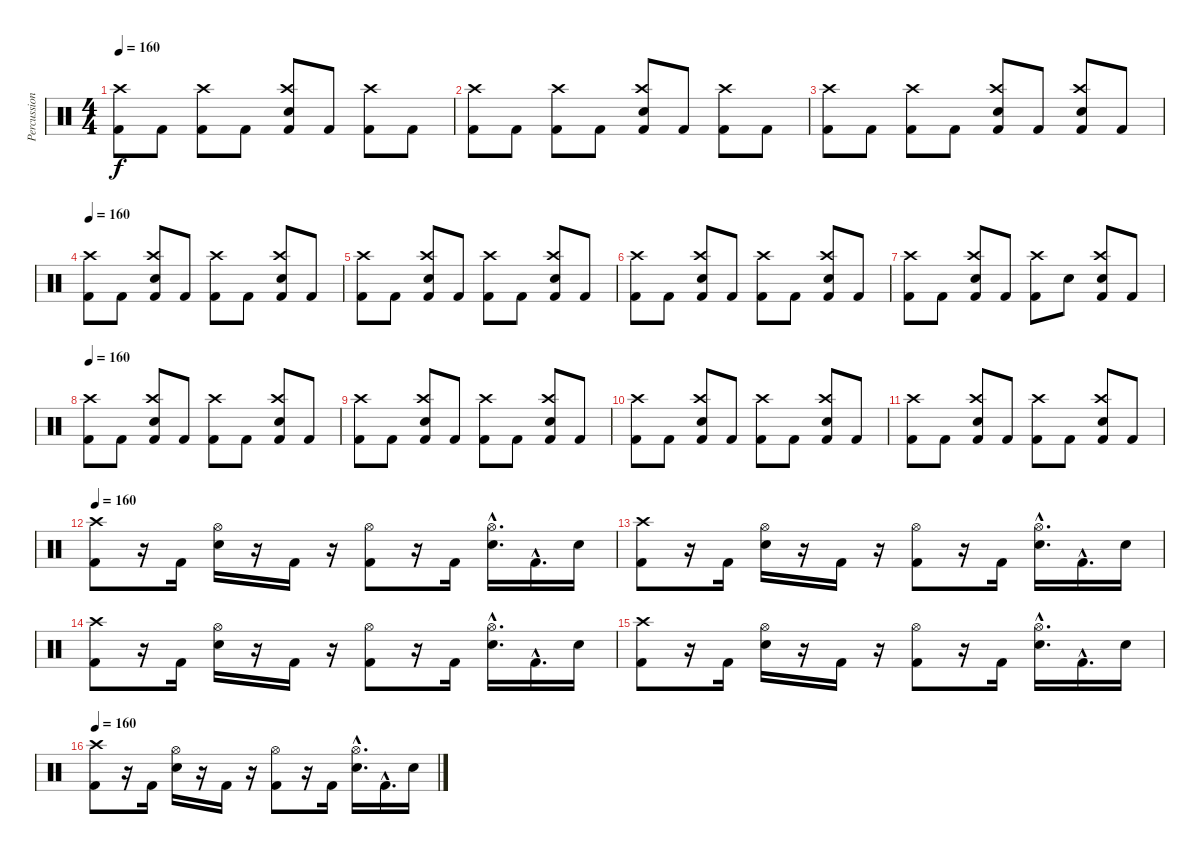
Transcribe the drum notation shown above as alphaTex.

\track ("Percussions" "Percussion") {instrument percussion}
\staff {score}
\articulation defaults
\ts (4 4)
\tempo 160
\clef neutral
\ks c
("Kick (hit) 2" "Crash high (hit)").8{dy f} "Kick (hit) 2".8 ("Kick (hit) 2" "Crash high (hit)").8 "Kick (hit) 2".8 ("Kick (hit) 2" "Electric Snare (hit)" "Crash high (hit)").8 "Kick (hit) 2".8 ("Kick (hit) 2" "Crash high (hit)").8 "Kick (hit) 2".8 |
("Kick (hit) 2" "Crash high (hit)").8 "Kick (hit) 2".8 ("Kick (hit) 2" "Crash high (hit)").8 "Kick (hit) 2".8 ("Kick (hit) 2" "Electric Snare (hit)" "Crash high (hit)").8 "Kick (hit) 2".8 ("Kick (hit) 2" "Crash high (hit)").8 "Kick (hit) 2".8 |
("Kick (hit) 2" "Crash high (hit)").8 "Kick (hit) 2".8 ("Kick (hit) 2" "Crash high (hit)").8 "Kick (hit) 2".8 ("Kick (hit) 2" "Electric Snare (hit)" "Crash high (hit)").8 "Kick (hit) 2".8 ("Kick (hit) 2" "Electric Snare (hit)" "Crash high (hit)").8 "Kick (hit) 2".8 |
\tempo 160
("Kick (hit) 2" "Crash high (hit)").8 "Kick (hit) 2".8 ("Kick (hit) 2" "Electric Snare (hit)" "Crash high (hit)").8 "Kick (hit) 2".8 ("Kick (hit) 2" "Crash high (hit)").8 "Kick (hit) 2".8 ("Kick (hit) 2" "Electric Snare (hit)" "Crash high (hit)").8 "Kick (hit) 2".8 |
("Kick (hit) 2" "Crash high (hit)").8 "Kick (hit) 2".8 ("Kick (hit) 2" "Electric Snare (hit)" "Crash high (hit)").8 "Kick (hit) 2".8 ("Kick (hit) 2" "Crash high (hit)").8 "Kick (hit) 2".8 ("Kick (hit) 2" "Electric Snare (hit)" "Crash high (hit)").8 "Kick (hit) 2".8 |
("Kick (hit) 2" "Crash high (hit)").8 "Kick (hit) 2".8 ("Kick (hit) 2" "Electric Snare (hit)" "Crash high (hit)").8 "Kick (hit) 2".8 ("Kick (hit) 2" "Crash high (hit)").8 "Kick (hit) 2".8 ("Kick (hit) 2" "Electric Snare (hit)" "Crash high (hit)").8 "Kick (hit) 2".8 |
("Kick (hit) 2" "Crash high (hit)").8 "Kick (hit) 2".8 ("Kick (hit) 2" "Electric Snare (hit)" "Crash high (hit)").8 "Kick (hit) 2".8 ("Kick (hit) 2" "Crash high (hit)").8 "Electric Snare (hit)".8 ("Kick (hit) 2" "Electric Snare (hit)" "Crash high (hit)").8 "Kick (hit) 2".8 |
\tempo 160
("Kick (hit) 2" "Crash high (hit)").8 "Kick (hit) 2".8 ("Kick (hit) 2" "Electric Snare (hit)" "Crash high (hit)").8 "Kick (hit) 2".8 ("Kick (hit) 2" "Crash high (hit)").8 "Kick (hit) 2".8 ("Kick (hit) 2" "Electric Snare (hit)" "Crash high (hit)").8 "Kick (hit) 2".8 |
("Kick (hit) 2" "Crash high (hit)").8 "Kick (hit) 2".8 ("Kick (hit) 2" "Electric Snare (hit)" "Crash high (hit)").8 "Kick (hit) 2".8 ("Kick (hit) 2" "Crash high (hit)").8 "Kick (hit) 2".8 ("Kick (hit) 2" "Electric Snare (hit)" "Crash high (hit)").8 "Kick (hit) 2".8 |
("Kick (hit) 2" "Crash high (hit)").8 "Kick (hit) 2".8 ("Kick (hit) 2" "Electric Snare (hit)" "Crash high (hit)").8 "Kick (hit) 2".8 ("Kick (hit) 2" "Crash high (hit)").8 "Kick (hit) 2".8 ("Kick (hit) 2" "Electric Snare (hit)" "Crash high (hit)").8 "Kick (hit) 2".8 |
("Kick (hit) 2" "Crash high (hit)").8 "Kick (hit) 2".8 ("Kick (hit) 2" "Electric Snare (hit)" "Crash high (hit)").8 "Kick (hit) 2".8 ("Kick (hit) 2" "Crash high (hit)").8 "Kick (hit) 2".8 ("Kick (hit) 2" "Electric Snare (hit)" "Crash high (hit)").8 "Kick (hit) 2".8 |
\tempo 160
("Kick (hit) 2" "Crash high (hit)").8 r.16 "Kick (hit) 2".16 ("Electric Snare (hit)" "Hi-Hat (open)").16 r.16 "Kick (hit) 2".16 r.16 ("Kick (hit) 2" "Hi-Hat (open)").8 r.16 "Kick (hit) 2".16 ("Electric Snare (hit)"{hac} "Hi-Hat (open)"{hac}).16{d} "Kick (hit) 2"{hac}.16{d} "Electric Snare (hit)".16 |
("Kick (hit) 2" "Crash high (hit)").8 r.16 "Kick (hit) 2".16 ("Electric Snare (hit)" "Hi-Hat (open)").16 r.16 "Kick (hit) 2".16 r.16 ("Kick (hit) 2" "Hi-Hat (open)").8 r.16 "Kick (hit) 2".16 ("Electric Snare (hit)"{hac} "Hi-Hat (open)"{hac}).16{d} "Kick (hit) 2"{hac}.16{d} "Electric Snare (hit)".16 |
("Kick (hit) 2" "Crash high (hit)").8 r.16 "Kick (hit) 2".16 ("Electric Snare (hit)" "Hi-Hat (open)").16 r.16 "Kick (hit) 2".16 r.16 ("Kick (hit) 2" "Hi-Hat (open)").8 r.16 "Kick (hit) 2".16 ("Electric Snare (hit)"{hac} "Hi-Hat (open)"{hac}).16{d} "Kick (hit) 2"{hac}.16{d} "Electric Snare (hit)".16 |
("Kick (hit) 2" "Crash high (hit)").8 r.16 "Kick (hit) 2".16 ("Electric Snare (hit)" "Hi-Hat (open)").16 r.16 "Kick (hit) 2".16 r.16 ("Kick (hit) 2" "Hi-Hat (open)").8 r.16 "Kick (hit) 2".16 ("Electric Snare (hit)"{hac} "Hi-Hat (open)"{hac}).16{d} "Kick (hit) 2"{hac}.16{d} "Electric Snare (hit)".16 |
\tempo 160
("Kick (hit) 2" "Crash high (hit)").8 r.16 "Kick (hit) 2".16 ("Electric Snare (hit)" "Hi-Hat (open)").16 r.16 "Kick (hit) 2".16 r.16 ("Kick (hit) 2" "Hi-Hat (open)").8 r.16 "Kick (hit) 2".16 ("Electric Snare (hit)"{hac} "Hi-Hat (open)"{hac}).16{d} "Kick (hit) 2"{hac}.16{d} "Electric Snare (hit)".16
